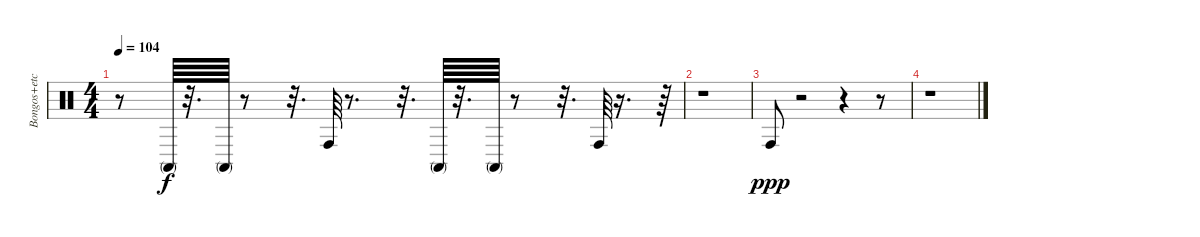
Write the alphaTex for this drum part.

\track ("Bongos+etc" "Bongos+etc") {instrument percussion}
\staff {score}
\articulation defaults
\ts (4 4)
\tempo 104
\clef neutral
\ks c
r.8{dy f} "Conga high (mute)".64 r.32{d} "Conga high (mute)".64 r.8 r.32{d} "Conga high (hit)".64 r.8{d} r.32{d} "Conga high (mute)".64 r.32{d} "Conga high (mute)".64 r.8 r.32{d} "Conga high (hit)".64 r.16{d} r.64 |
r.1 |
"Conga high (hit)".8{dy ppp} r.2 r.4 r.8 |
r.1
